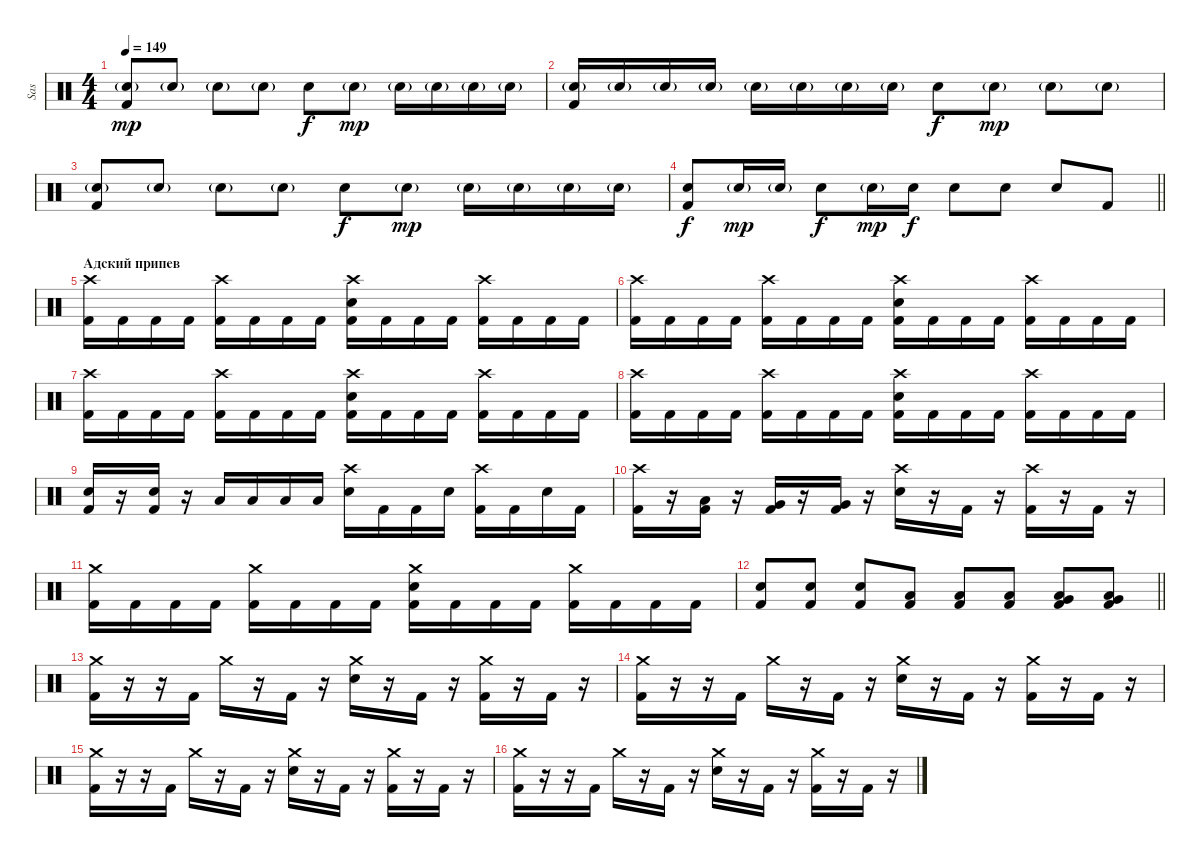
\track ("Sas" "Sas") {instrument percussion}
\staff {score}
\articulation defaults
\ts (4 4)
\tempo 149
\clef neutral
\ks c
("Snare (hit) 2"{g} "Kick (hit) 2").8{dy mp} "Snare (hit) 2"{g}.8 "Snare (hit) 2"{g}.8 "Snare (hit) 2"{g}.8 "Snare (hit) 2".8{dy f} "Snare (hit) 2"{g}.8{dy mp} "Snare (hit) 2"{g}.16 "Snare (hit) 2"{g}.16 "Snare (hit) 2"{g}.16 "Snare (hit) 2"{g}.16 |
("Snare (hit) 2"{g} "Kick (hit) 2").16 "Snare (hit) 2"{g}.16 "Snare (hit) 2"{g}.16 "Snare (hit) 2"{g}.16 "Snare (hit) 2"{g}.16 "Snare (hit) 2"{g}.16 "Snare (hit) 2"{g}.16 "Snare (hit) 2"{g}.16 "Snare (hit) 2".8{dy f} "Snare (hit) 2"{g}.8{dy mp} "Snare (hit) 2"{g}.8 "Snare (hit) 2"{g}.8 |
("Snare (hit) 2"{g} "Kick (hit) 2").8 "Snare (hit) 2"{g}.8 "Snare (hit) 2"{g}.8 "Snare (hit) 2"{g}.8 "Snare (hit) 2".8{dy f} "Snare (hit) 2"{g}.8{dy mp} "Snare (hit) 2"{g}.16 "Snare (hit) 2"{g}.16 "Snare (hit) 2"{g}.16 "Snare (hit) 2"{g}.16 |
\barLineRight lightlight
("Snare (hit) 2" "Kick (hit) 2").8{dy f} "Snare (hit) 2"{g}.16{dy mp} "Snare (hit) 2"{g}.16 "Snare (hit) 2".8{dy f} "Snare (hit) 2"{g}.16{dy mp} "Snare (hit) 2".16{dy f} "Snare (hit) 2".8 "Snare (hit) 2".8 "Snare (hit) 2".8 "Kick (hit) 2".8 |
\section ("" "Адский припев")
("Crash high (hit)" "Kick (hit) 2").16 "Kick (hit) 2".16 "Kick (hit) 2".16 "Kick (hit) 2".16 ("Crash high (hit)" "Kick (hit) 2").16 "Kick (hit) 2".16 "Kick (hit) 2".16 "Kick (hit) 2".16 ("Crash high (hit)" "Snare (hit) 2" "Kick (hit) 2").16 "Kick (hit) 2".16 "Kick (hit) 2".16 "Kick (hit) 2".16 ("Crash high (hit)" "Kick (hit) 2").16 "Kick (hit) 2".16 "Kick (hit) 2".16 "Kick (hit) 2".16 |
("Crash high (hit)" "Kick (hit) 2").16 "Kick (hit) 2".16 "Kick (hit) 2".16 "Kick (hit) 2".16 ("Crash high (hit)" "Kick (hit) 2").16 "Kick (hit) 2".16 "Kick (hit) 2".16 "Kick (hit) 2".16 ("Crash high (hit)" "Snare (hit) 2" "Kick (hit) 2").16 "Kick (hit) 2".16 "Kick (hit) 2".16 "Kick (hit) 2".16 ("Crash high (hit)" "Kick (hit) 2").16 "Kick (hit) 2".16 "Kick (hit) 2".16 "Kick (hit) 2".16 |
("Crash high (hit)" "Kick (hit) 2").16 "Kick (hit) 2".16 "Kick (hit) 2".16 "Kick (hit) 2".16 ("Crash high (hit)" "Kick (hit) 2").16 "Kick (hit) 2".16 "Kick (hit) 2".16 "Kick (hit) 2".16 ("Crash high (hit)" "Snare (hit) 2" "Kick (hit) 2").16 "Kick (hit) 2".16 "Kick (hit) 2".16 "Kick (hit) 2".16 ("Crash high (hit)" "Kick (hit) 2").16 "Kick (hit) 2".16 "Kick (hit) 2".16 "Kick (hit) 2".16 |
("Crash high (hit)" "Kick (hit) 2").16 "Kick (hit) 2".16 "Kick (hit) 2".16 "Kick (hit) 2".16 ("Crash high (hit)" "Kick (hit) 2").16 "Kick (hit) 2".16 "Kick (hit) 2".16 "Kick (hit) 2".16 ("Crash high (hit)" "Snare (hit) 2" "Kick (hit) 2").16 "Kick (hit) 2".16 "Kick (hit) 2".16 "Kick (hit) 2".16 ("Crash high (hit)" "Kick (hit) 2").16 "Kick (hit) 2".16 "Kick (hit) 2".16 "Kick (hit) 2".16 |
("Snare (hit) 2" "Kick (hit) 2").16 r.16 ("Snare (hit) 2" "Kick (hit) 2").16 r.16 "Low Tom (hit)".16 "Low Tom (hit)".16 "Low Tom (hit)".16 "Low Tom (hit)".16 ("Crash high (hit)" "Snare (hit) 2").16 "Kick (hit) 2".16 "Kick (hit) 2".16 "Snare (hit) 2".16 ("Crash high (hit)" "Kick (hit) 2").16 "Kick (hit) 2".16 "Snare (hit) 2".16 "Kick (hit) 2".16 |
("Crash high (hit)" "Kick (hit) 2").16 r.16 ("Low Tom (hit)" "Kick (hit) 2").16 r.16 ("Very Low Tom (hit)" "Kick (hit) 2").16 r.16 ("Very Low Tom (hit)" "Kick (hit) 2").16 r.16 ("Crash high (hit)" "Snare (hit) 2").16 r.16 "Kick (hit) 2".16 r.16 ("Crash high (hit)" "Kick (hit) 2").16 r.16 "Kick (hit) 2".16 r.16 |
("Crash medium (hit)" "Kick (hit) 2").16 "Kick (hit) 2".16 "Kick (hit) 2".16 "Kick (hit) 2".16 ("Crash medium (hit)" "Kick (hit) 2").16 "Kick (hit) 2".16 "Kick (hit) 2".16 "Kick (hit) 2".16 ("Crash medium (hit)" "Snare (hit) 2" "Kick (hit) 2").16 "Kick (hit) 2".16 "Kick (hit) 2".16 "Kick (hit) 2".16 ("Crash medium (hit)" "Kick (hit) 2").16 "Kick (hit) 2".16 "Kick (hit) 2".16 "Kick (hit) 2".16 |
\barLineRight lightlight
("Snare (hit) 2" "Kick (hit) 2").8 ("Snare (hit) 2" "Kick (hit) 2").8 ("Snare (hit) 2" "Kick (hit) 2").8 ("Low Tom (hit)" "Kick (hit) 2").8 ("Low Tom (hit)" "Kick (hit) 2").8 ("Low Tom (hit)" "Kick (hit) 2").8 ("Low Tom (hit)" "Very Low Tom (hit)" "Kick (hit) 2").8 ("Low Tom (hit)" "Very Low Tom (hit)" "Kick (hit) 2").8 |
("Crash medium (hit)" "Kick (hit) 2").16 r.16 r.16 "Kick (hit) 2".16 "Crash medium (hit)".16 r.16 "Kick (hit) 2".16 r.16 ("Crash medium (hit)" "Snare (hit) 2").16 r.16 "Kick (hit) 2".16 r.16 ("Crash medium (hit)" "Kick (hit) 2").16 r.16 "Kick (hit) 2".16 r.16 |
("Crash medium (hit)" "Kick (hit) 2").16 r.16 r.16 "Kick (hit) 2".16 "Crash medium (hit)".16 r.16 "Kick (hit) 2".16 r.16 ("Crash medium (hit)" "Snare (hit) 2").16 r.16 "Kick (hit) 2".16 r.16 ("Crash medium (hit)" "Kick (hit) 2").16 r.16 "Kick (hit) 2".16 r.16 |
("Crash medium (hit)" "Kick (hit) 2").16 r.16 r.16 "Kick (hit) 2".16 "Crash medium (hit)".16 r.16 "Kick (hit) 2".16 r.16 ("Crash medium (hit)" "Snare (hit) 2").16 r.16 "Kick (hit) 2".16 r.16 ("Crash medium (hit)" "Kick (hit) 2").16 r.16 "Kick (hit) 2".16 r.16 |
("Crash medium (hit)" "Kick (hit) 2").16 r.16 r.16 "Kick (hit) 2".16 "Crash medium (hit)".16 r.16 "Kick (hit) 2".16 r.16 ("Crash medium (hit)" "Snare (hit) 2").16 r.16 "Kick (hit) 2".16 r.16 ("Crash medium (hit)" "Kick (hit) 2").16 r.16 "Kick (hit) 2".16 r.16
